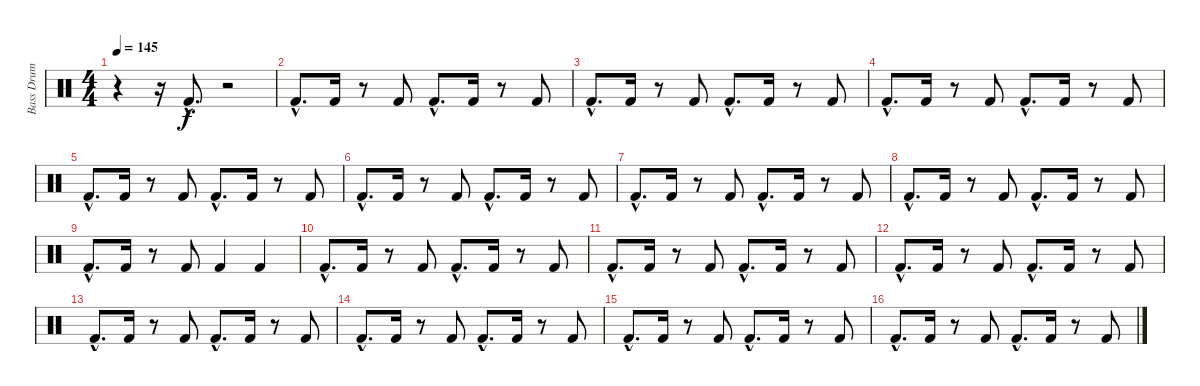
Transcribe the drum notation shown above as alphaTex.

\track ("Bass Drum" "Bass Drum") {instrument percussion}
\staff {score}
\articulation defaults
\ts (4 4)
\tempo 145
\clef neutral
\ks c
r.4{dy f} r.16 "Kick (hit) 2"{hac}.8{d} r.2 |
"Kick (hit) 2"{hac}.8{d} "Kick (hit) 2".16 r.8 "Kick (hit) 2".8 "Kick (hit) 2"{hac}.8{d} "Kick (hit) 2".16 r.8 "Kick (hit) 2".8 |
"Kick (hit) 2"{hac}.8{d} "Kick (hit) 2".16 r.8 "Kick (hit) 2".8 "Kick (hit) 2"{hac}.8{d} "Kick (hit) 2".16 r.8 "Kick (hit) 2".8 |
"Kick (hit) 2"{hac}.8{d} "Kick (hit) 2".16 r.8 "Kick (hit) 2".8 "Kick (hit) 2"{hac}.8{d} "Kick (hit) 2".16 r.8 "Kick (hit) 2".8 |
"Kick (hit) 2"{hac}.8{d} "Kick (hit) 2".16 r.8 "Kick (hit) 2".8 "Kick (hit) 2"{hac}.8{d} "Kick (hit) 2".16 r.8 "Kick (hit) 2".8 |
"Kick (hit) 2"{hac}.8{d} "Kick (hit) 2".16 r.8 "Kick (hit) 2".8 "Kick (hit) 2"{hac}.8{d} "Kick (hit) 2".16 r.8 "Kick (hit) 2".8 |
"Kick (hit) 2"{hac}.8{d} "Kick (hit) 2".16 r.8 "Kick (hit) 2".8 "Kick (hit) 2"{hac}.8{d} "Kick (hit) 2".16 r.8 "Kick (hit) 2".8 |
"Kick (hit) 2"{hac}.8{d} "Kick (hit) 2".16 r.8 "Kick (hit) 2".8 "Kick (hit) 2"{hac}.8{d} "Kick (hit) 2".16 r.8 "Kick (hit) 2".8 |
"Kick (hit) 2"{hac}.8{d} "Kick (hit) 2".16 r.8 "Kick (hit) 2".8 "Kick (hit) 2".4 "Kick (hit) 2".4 |
"Kick (hit) 2"{hac}.8{d} "Kick (hit) 2".16 r.8 "Kick (hit) 2".8 "Kick (hit) 2"{hac}.8{d} "Kick (hit) 2".16 r.8 "Kick (hit) 2".8 |
"Kick (hit) 2"{hac}.8{d} "Kick (hit) 2".16 r.8 "Kick (hit) 2".8 "Kick (hit) 2"{hac}.8{d} "Kick (hit) 2".16 r.8 "Kick (hit) 2".8 |
"Kick (hit) 2"{hac}.8{d} "Kick (hit) 2".16 r.8 "Kick (hit) 2".8 "Kick (hit) 2"{hac}.8{d} "Kick (hit) 2".16 r.8 "Kick (hit) 2".8 |
"Kick (hit) 2"{hac}.8{d} "Kick (hit) 2".16 r.8 "Kick (hit) 2".8 "Kick (hit) 2"{hac}.8{d} "Kick (hit) 2".16 r.8 "Kick (hit) 2".8 |
"Kick (hit) 2"{hac}.8{d} "Kick (hit) 2".16 r.8 "Kick (hit) 2".8 "Kick (hit) 2"{hac}.8{d} "Kick (hit) 2".16 r.8 "Kick (hit) 2".8 |
"Kick (hit) 2"{hac}.8{d} "Kick (hit) 2".16 r.8 "Kick (hit) 2".8 "Kick (hit) 2"{hac}.8{d} "Kick (hit) 2".16 r.8 "Kick (hit) 2".8 |
"Kick (hit) 2"{hac}.8{d} "Kick (hit) 2".16 r.8 "Kick (hit) 2".8 "Kick (hit) 2"{hac}.8{d} "Kick (hit) 2".16 r.8 "Kick (hit) 2".8
